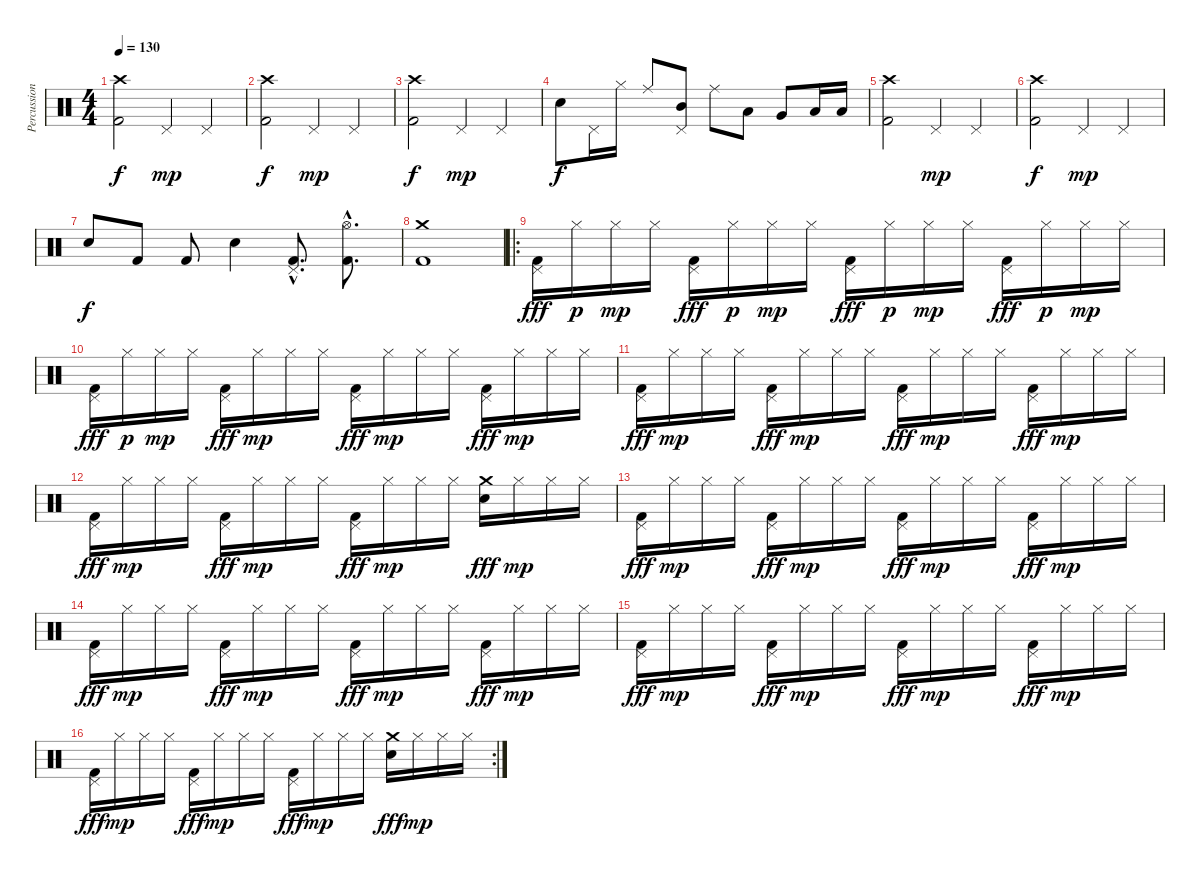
\track ("Percussion" "Percussion") {instrument percussion}
\staff {score}
\articulation defaults
\ts (4 4)
\tempo 130
\clef neutral
\ks c
("Crash high (hit)" "Kick (hit) 2").2{dy f} "Pedal Hi-Hat (hit)".4{dy mp} "Pedal Hi-Hat (hit)".4 |
("Crash high (hit)" "Kick (hit) 2").2{dy f} "Pedal Hi-Hat (hit)".4{dy mp} "Pedal Hi-Hat (hit)".4 |
("Crash high (hit)" "Kick (hit) 2").2{dy f} "Pedal Hi-Hat (hit)".4{dy mp} "Pedal Hi-Hat (hit)".4 |
"Snare (hit) 2".8{dy f} "Pedal Hi-Hat (hit)".16 "Hi-Hat (closed)".16 "Ride (middle)".8 ("Mid Tom (hit)" "Pedal Hi-Hat (hit)").8 "Ride (middle)".8 "Low Tom (hit)".8 "Very Low Tom (hit)".8 "Low Floor Tom (hit)".16 "Low Floor Tom (hit)".16 |
("Crash high (hit)" "Kick (hit) 2").2 "Pedal Hi-Hat (hit)".4{dy mp} "Pedal Hi-Hat (hit)".4 |
("Crash high (hit)" "Kick (hit) 2").2{dy f} "Pedal Hi-Hat (hit)".4{dy mp} "Pedal Hi-Hat (hit)".4 |
"Snare (hit) 2".8{dy f} "Kick (hit) 2".8 "Kick (hit) 2".8 "Snare (hit) 2".4 ("Kick (hit) 2"{hac} "Pedal Hi-Hat (hit)"{hac}).8{d} ("Kick (hit) 2"{hac} "Hi-Hat (open)"{hac}).8{d} |
("Kick (hit) 2" "Crash medium (hit)").1 |
\ro
("Pedal Hi-Hat (hit)" "Kick (hit) 2").16{dy fff} "Hi-Hat (closed)".16{dy p} "Hi-Hat (closed)".16{dy mp} "Hi-Hat (closed)".16 ("Pedal Hi-Hat (hit)" "Kick (hit) 2").16{dy fff} "Hi-Hat (closed)".16{dy p} "Hi-Hat (closed)".16{dy mp} "Hi-Hat (closed)".16 ("Pedal Hi-Hat (hit)" "Kick (hit) 2").16{dy fff} "Hi-Hat (closed)".16{dy p} "Hi-Hat (closed)".16{dy mp} "Hi-Hat (closed)".16 ("Pedal Hi-Hat (hit)" "Kick (hit) 2").16{dy fff} "Hi-Hat (closed)".16{dy p} "Hi-Hat (closed)".16{dy mp} "Hi-Hat (closed)".16 |
("Pedal Hi-Hat (hit)" "Kick (hit) 2").16{dy fff} "Hi-Hat (closed)".16{dy p} "Hi-Hat (closed)".16{dy mp} "Hi-Hat (closed)".16 ("Pedal Hi-Hat (hit)" "Kick (hit) 2").16{dy fff} "Hi-Hat (closed)".16{dy mp} "Hi-Hat (closed)".16 "Hi-Hat (closed)".16 ("Pedal Hi-Hat (hit)" "Kick (hit) 2").16{dy fff} "Hi-Hat (closed)".16{dy mp} "Hi-Hat (closed)".16 "Hi-Hat (closed)".16 ("Pedal Hi-Hat (hit)" "Kick (hit) 2").16{dy fff} "Hi-Hat (closed)".16{dy mp} "Hi-Hat (closed)".16 "Hi-Hat (closed)".16 |
("Pedal Hi-Hat (hit)" "Kick (hit) 2").16{dy fff} "Hi-Hat (closed)".16{dy mp} "Hi-Hat (closed)".16 "Hi-Hat (closed)".16 ("Pedal Hi-Hat (hit)" "Kick (hit) 2").16{dy fff} "Hi-Hat (closed)".16{dy mp} "Hi-Hat (closed)".16 "Hi-Hat (closed)".16 ("Pedal Hi-Hat (hit)" "Kick (hit) 2").16{dy fff} "Hi-Hat (closed)".16{dy mp} "Hi-Hat (closed)".16 "Hi-Hat (closed)".16 ("Pedal Hi-Hat (hit)" "Kick (hit) 2").16{dy fff} "Hi-Hat (closed)".16{dy mp} "Hi-Hat (closed)".16 "Hi-Hat (closed)".16 |
("Pedal Hi-Hat (hit)" "Kick (hit) 2").16{dy fff} "Hi-Hat (closed)".16{dy mp} "Hi-Hat (closed)".16 "Hi-Hat (closed)".16 ("Pedal Hi-Hat (hit)" "Kick (hit) 2").16{dy fff} "Hi-Hat (closed)".16{dy mp} "Hi-Hat (closed)".16 "Hi-Hat (closed)".16 ("Pedal Hi-Hat (hit)" "Kick (hit) 2").16{dy fff} "Hi-Hat (closed)".16{dy mp} "Hi-Hat (closed)".16 "Hi-Hat (closed)".16 ("Crash medium (hit)" "Snare (hit) 2").16{dy fff} "Hi-Hat (closed)".16{dy mp} "Hi-Hat (closed)".16 "Hi-Hat (closed)".16 |
("Pedal Hi-Hat (hit)" "Kick (hit) 2").16{dy fff} "Hi-Hat (closed)".16{dy mp} "Hi-Hat (closed)".16 "Hi-Hat (closed)".16 ("Pedal Hi-Hat (hit)" "Kick (hit) 2").16{dy fff} "Hi-Hat (closed)".16{dy mp} "Hi-Hat (closed)".16 "Hi-Hat (closed)".16 ("Pedal Hi-Hat (hit)" "Kick (hit) 2").16{dy fff} "Hi-Hat (closed)".16{dy mp} "Hi-Hat (closed)".16 "Hi-Hat (closed)".16 ("Pedal Hi-Hat (hit)" "Kick (hit) 2").16{dy fff} "Hi-Hat (closed)".16{dy mp} "Hi-Hat (closed)".16 "Hi-Hat (closed)".16 |
("Pedal Hi-Hat (hit)" "Kick (hit) 2").16{dy fff} "Hi-Hat (closed)".16{dy mp} "Hi-Hat (closed)".16 "Hi-Hat (closed)".16 ("Pedal Hi-Hat (hit)" "Kick (hit) 2").16{dy fff} "Hi-Hat (closed)".16{dy mp} "Hi-Hat (closed)".16 "Hi-Hat (closed)".16 ("Pedal Hi-Hat (hit)" "Kick (hit) 2").16{dy fff} "Hi-Hat (closed)".16{dy mp} "Hi-Hat (closed)".16 "Hi-Hat (closed)".16 ("Pedal Hi-Hat (hit)" "Kick (hit) 2").16{dy fff} "Hi-Hat (closed)".16{dy mp} "Hi-Hat (closed)".16 "Hi-Hat (closed)".16 |
("Pedal Hi-Hat (hit)" "Kick (hit) 2").16{dy fff} "Hi-Hat (closed)".16{dy mp} "Hi-Hat (closed)".16 "Hi-Hat (closed)".16 ("Pedal Hi-Hat (hit)" "Kick (hit) 2").16{dy fff} "Hi-Hat (closed)".16{dy mp} "Hi-Hat (closed)".16 "Hi-Hat (closed)".16 ("Pedal Hi-Hat (hit)" "Kick (hit) 2").16{dy fff} "Hi-Hat (closed)".16{dy mp} "Hi-Hat (closed)".16 "Hi-Hat (closed)".16 ("Pedal Hi-Hat (hit)" "Kick (hit) 2").16{dy fff} "Hi-Hat (closed)".16{dy mp} "Hi-Hat (closed)".16 "Hi-Hat (closed)".16 |
\rc 2
("Pedal Hi-Hat (hit)" "Kick (hit) 2").16{dy fff} "Hi-Hat (closed)".16{dy mp} "Hi-Hat (closed)".16 "Hi-Hat (closed)".16 ("Pedal Hi-Hat (hit)" "Kick (hit) 2").16{dy fff} "Hi-Hat (closed)".16{dy mp} "Hi-Hat (closed)".16 "Hi-Hat (closed)".16 ("Pedal Hi-Hat (hit)" "Kick (hit) 2").16{dy fff} "Hi-Hat (closed)".16{dy mp} "Hi-Hat (closed)".16 "Hi-Hat (closed)".16 ("Crash medium (hit)" "Snare (hit) 2").16{dy fff} "Hi-Hat (closed)".16{dy mp} "Hi-Hat (closed)".16 "Hi-Hat (closed)".16
